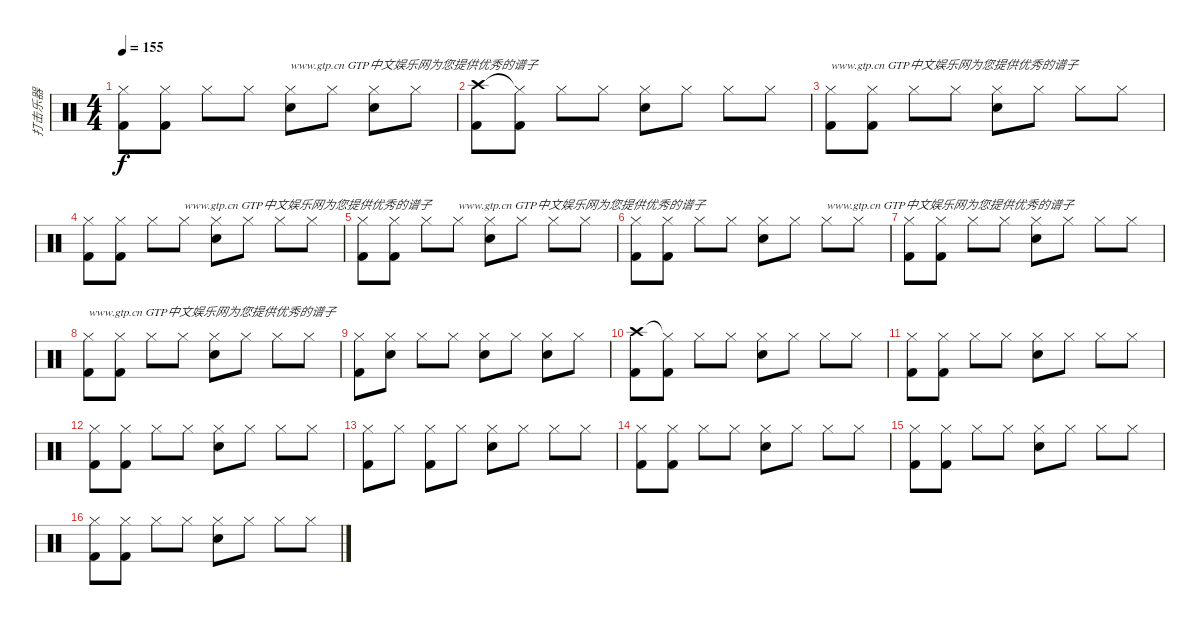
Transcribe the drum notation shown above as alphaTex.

\track ("打击乐器" "打击乐器") {instrument percussion}
\staff {score}
\articulation defaults
\ts (4 4)
\tempo 155
\clef neutral
\ks c
("Hi-Hat (closed)" "Kick (hit) 2").8{dy f} ("Hi-Hat (closed)" "Kick (hit) 2").8 "Hi-Hat (closed)".8 "Hi-Hat (closed)".8 ("Hi-Hat (closed)" "Snare (hit) 2").8{txt "www.gtp.cn GTP中文娱乐网为您提供优秀的谱子"} "Hi-Hat (closed)".8 ("Hi-Hat (closed)" "Snare (hit) 2").8 "Hi-Hat (closed)".8 |
("Crash high (hit)" "Kick (hit) 2").8 ("Hi-Hat (closed)"{t} "Kick (hit) 2").8 "Hi-Hat (closed)".8 "Hi-Hat (closed)".8 ("Hi-Hat (closed)" "Snare (hit) 2").8 "Hi-Hat (closed)".8 "Hi-Hat (closed)".8 "Hi-Hat (closed)".8 |
("Hi-Hat (closed)" "Kick (hit) 2").8{txt "www.gtp.cn GTP中文娱乐网为您提供优秀的谱子"} ("Hi-Hat (closed)" "Kick (hit) 2").8 "Hi-Hat (closed)".8 "Hi-Hat (closed)".8 ("Hi-Hat (closed)" "Snare (hit) 2").8 "Hi-Hat (closed)".8 "Hi-Hat (closed)".8 "Hi-Hat (closed)".8 |
("Hi-Hat (closed)" "Kick (hit) 2").8 ("Hi-Hat (closed)" "Kick (hit) 2").8 "Hi-Hat (closed)".8 "Hi-Hat (closed)".8{txt "www.gtp.cn GTP中文娱乐网为您提供优秀的谱子"} ("Hi-Hat (closed)" "Snare (hit) 2").8 "Hi-Hat (closed)".8 "Hi-Hat (closed)".8 "Hi-Hat (closed)".8 |
("Hi-Hat (closed)" "Kick (hit) 2").8 ("Hi-Hat (closed)" "Kick (hit) 2").8 "Hi-Hat (closed)".8 "Hi-Hat (closed)".8{txt "www.gtp.cn GTP中文娱乐网为您提供优秀的谱子"} ("Hi-Hat (closed)" "Snare (hit) 2").8 "Hi-Hat (closed)".8 "Hi-Hat (closed)".8 "Hi-Hat (closed)".8 |
("Hi-Hat (closed)" "Kick (hit) 2").8 ("Hi-Hat (closed)" "Kick (hit) 2").8 "Hi-Hat (closed)".8 "Hi-Hat (closed)".8 ("Hi-Hat (closed)" "Snare (hit) 2").8 "Hi-Hat (closed)".8 "Hi-Hat (closed)".8{txt "www.gtp.cn GTP中文娱乐网为您提供优秀的谱子"} "Hi-Hat (closed)".8 |
("Hi-Hat (closed)" "Kick (hit) 2").8 ("Hi-Hat (closed)" "Kick (hit) 2").8 "Hi-Hat (closed)".8 "Hi-Hat (closed)".8 ("Hi-Hat (closed)" "Snare (hit) 2").8 "Hi-Hat (closed)".8 "Hi-Hat (closed)".8 "Hi-Hat (closed)".8 |
("Hi-Hat (closed)" "Kick (hit) 2").8{txt "www.gtp.cn GTP中文娱乐网为您提供优秀的谱子"} ("Hi-Hat (closed)" "Kick (hit) 2").8 "Hi-Hat (closed)".8 "Hi-Hat (closed)".8 ("Hi-Hat (closed)" "Snare (hit) 2").8 "Hi-Hat (closed)".8 "Hi-Hat (closed)".8 "Hi-Hat (closed)".8 |
("Hi-Hat (closed)" "Kick (hit) 2").8 ("Hi-Hat (closed)" "Snare (hit) 2").8 "Hi-Hat (closed)".8 "Hi-Hat (closed)".8 ("Hi-Hat (closed)" "Snare (hit) 2").8 "Hi-Hat (closed)".8 ("Hi-Hat (closed)" "Snare (hit) 2").8 "Hi-Hat (closed)".8 |
("Crash high (hit)" "Kick (hit) 2").8 ("Hi-Hat (closed)"{t} "Kick (hit) 2").8 "Hi-Hat (closed)".8 "Hi-Hat (closed)".8 ("Hi-Hat (closed)" "Snare (hit) 2").8 "Hi-Hat (closed)".8 "Hi-Hat (closed)".8 "Hi-Hat (closed)".8 |
("Hi-Hat (closed)" "Kick (hit) 2").8 ("Hi-Hat (closed)" "Kick (hit) 2").8 "Hi-Hat (closed)".8 "Hi-Hat (closed)".8 ("Hi-Hat (closed)" "Snare (hit) 2").8 "Hi-Hat (closed)".8 "Hi-Hat (closed)".8 "Hi-Hat (closed)".8 |
("Hi-Hat (closed)" "Kick (hit) 2").8 ("Hi-Hat (closed)" "Kick (hit) 2").8 "Hi-Hat (closed)".8 "Hi-Hat (closed)".8 ("Hi-Hat (closed)" "Snare (hit) 2").8 "Hi-Hat (closed)".8 "Hi-Hat (closed)".8 "Hi-Hat (closed)".8 |
("Hi-Hat (closed)" "Kick (hit) 2").8 "Hi-Hat (closed)".8 ("Hi-Hat (closed)" "Kick (hit) 2").8 "Hi-Hat (closed)".8 ("Hi-Hat (closed)" "Snare (hit) 2").8 "Hi-Hat (closed)".8 "Hi-Hat (closed)".8 "Hi-Hat (closed)".8 |
("Hi-Hat (closed)" "Kick (hit) 2").8 ("Hi-Hat (closed)" "Kick (hit) 2").8 "Hi-Hat (closed)".8 "Hi-Hat (closed)".8 ("Hi-Hat (closed)" "Snare (hit) 2").8 "Hi-Hat (closed)".8 "Hi-Hat (closed)".8 "Hi-Hat (closed)".8 |
("Hi-Hat (closed)" "Kick (hit) 2").8 ("Hi-Hat (closed)" "Kick (hit) 2").8 "Hi-Hat (closed)".8 "Hi-Hat (closed)".8 ("Hi-Hat (closed)" "Snare (hit) 2").8 "Hi-Hat (closed)".8 "Hi-Hat (closed)".8 "Hi-Hat (closed)".8 |
("Hi-Hat (closed)" "Kick (hit) 2").8 ("Hi-Hat (closed)" "Kick (hit) 2").8 "Hi-Hat (closed)".8 "Hi-Hat (closed)".8 ("Hi-Hat (closed)" "Snare (hit) 2").8 "Hi-Hat (closed)".8 "Hi-Hat (closed)".8 "Hi-Hat (closed)".8
